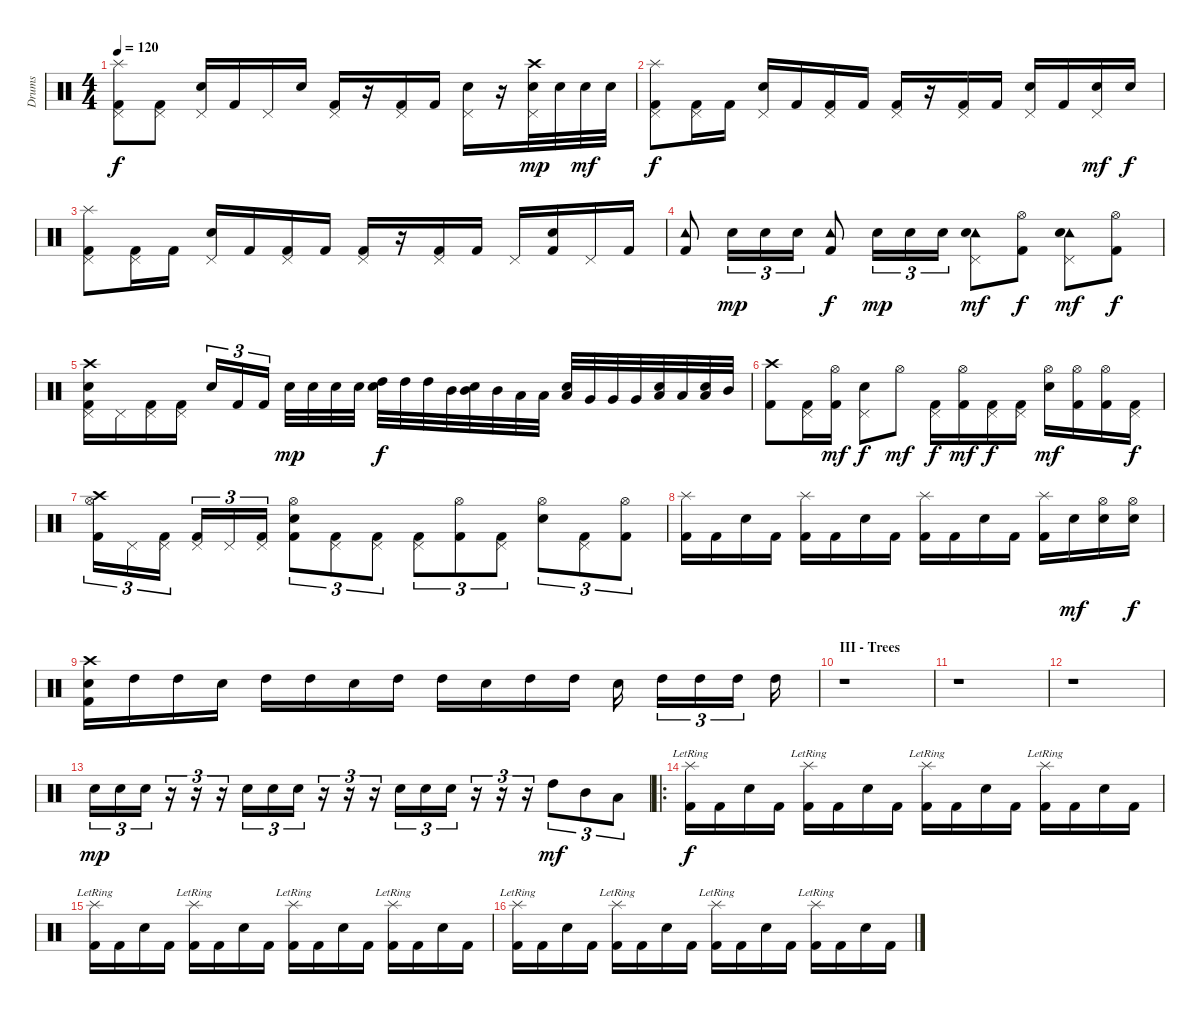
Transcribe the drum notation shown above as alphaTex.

\track ("Drums" "Drums") {instrument percussion}
\staff {score}
\articulation defaults
\ts (4 4)
\tempo 120
\clef neutral
\ks c
("Splash (hit)" "Pedal Hi-Hat (hit)" "Kick (hit) 2").8{dy f} ("Pedal Hi-Hat (hit)" "Kick (hit) 2").8 ("Pedal Hi-Hat (hit)" "Electric Snare (hit)").16 "Kick (hit) 2".16 "Pedal Hi-Hat (hit)".16 "Electric Snare (hit)".16 ("Pedal Hi-Hat (hit)" "Kick (hit) 2").16 r.16 ("Pedal Hi-Hat (hit)" "Kick (hit) 2").16 "Kick (hit) 2".16 ("Pedal Hi-Hat (hit)" "Electric Snare (hit)").16 r.16 ("Crash high (hit)" "Pedal Hi-Hat (hit)" "Electric Snare (hit)").32{dy mp} "Electric Snare (hit)".32 "Electric Snare (hit)".32{dy mf} "Electric Snare (hit)".32 |
("Splash (hit)" "Pedal Hi-Hat (hit)" "Kick (hit) 2").8{dy f} ("Pedal Hi-Hat (hit)" "Kick (hit) 2").16 "Kick (hit) 2".16 ("Pedal Hi-Hat (hit)" "Electric Snare (hit)").16 "Kick (hit) 2".16 ("Pedal Hi-Hat (hit)" "Kick (hit) 2").16 "Kick (hit) 2".16 ("Pedal Hi-Hat (hit)" "Kick (hit) 2").16 r.16 ("Pedal Hi-Hat (hit)" "Kick (hit) 2").16 "Kick (hit) 2".16 ("Pedal Hi-Hat (hit)" "Electric Snare (hit)").16 "Kick (hit) 2".16 ("Pedal Hi-Hat (hit)" "Electric Snare (hit)").16{dy mf} "Electric Snare (hit)".16{dy f} |
("Splash (hit)" "Pedal Hi-Hat (hit)" "Kick (hit) 2").8 ("Pedal Hi-Hat (hit)" "Kick (hit) 2").16 "Kick (hit) 2".16 ("Pedal Hi-Hat (hit)" "Electric Snare (hit)").16 "Kick (hit) 2".16 ("Pedal Hi-Hat (hit)" "Kick (hit) 2").16 "Kick (hit) 2".16 ("Pedal Hi-Hat (hit)" "Kick (hit) 2").16 r.16 ("Pedal Hi-Hat (hit)" "Kick (hit) 2").16 "Kick (hit) 2".16 "Pedal Hi-Hat (hit)".16 ("Electric Snare (hit)" "Kick (hit) 2").16 "Pedal Hi-Hat (hit)".16 "Kick (hit) 2".16 |
("Tambourine (hit)" "Kick (hit) 2").8 "Electric Snare (hit)".16{tu (3 2) dy mp} "Electric Snare (hit)".16{tu (3 2)} "Electric Snare (hit)".16{tu (3 2)} ("Tambourine (hit)" "Kick (hit) 2").8{dy f} "Electric Snare (hit)".16{tu (3 2) dy mp} "Electric Snare (hit)".16{tu (3 2)} "Electric Snare (hit)".16{tu (3 2)} ("Tambourine (hit)" "Pedal Hi-Hat (hit)" "Electric Snare (hit)").8{dy mf} ("Hi-Hat (open)" "Kick (hit) 2").8{dy f} ("Tambourine (hit)" "Pedal Hi-Hat (hit)" "Electric Snare (hit)").8{dy mf} ("Hi-Hat (open)" "Kick (hit) 2").8{dy f} |
("Crash high (hit)" "Pedal Hi-Hat (hit)" "Electric Snare (hit)" "Kick (hit) 2").16 "Pedal Hi-Hat (hit)".16 ("Pedal Hi-Hat (hit)" "Kick (hit) 2").16 ("Pedal Hi-Hat (hit)" "Kick (hit) 2").16 "Electric Snare (hit)".16{tu (3 2)} "Kick (hit) 2".16{tu (3 2)} "Kick (hit) 2".16{tu (3 2)} "Electric Snare (hit)".32{dy mp} "Electric Snare (hit)".32 "Electric Snare (hit)".32 "Electric Snare (hit)".32 ("Electric Snare (hit)" "High Tom (hit)").32{dy f} "High Tom (hit)".32 "High Tom (hit)".32 "Mid Tom (hit)".32 ("Electric Snare (hit)" "Mid Tom (hit)").32 "Mid Tom (hit)".32 "Low Tom (hit)".32 "Low Tom (hit)".32 ("Electric Snare (hit)" "Low Tom (hit)").32 "Very Low Tom (hit)".32 "Very Low Tom (hit)".32 "Very Low Tom (hit)".32 ("Electric Snare (hit)" "Low Tom (hit)").32 "Low Tom (hit)".32 ("Electric Snare (hit)" "Low Tom (hit)").32 "Mid Tom (hit)".32 |
("Crash high (hit)" "Kick (hit) 2").8 ("Pedal Hi-Hat (hit)" "Kick (hit) 2").16 ("Hi-Hat (open)" "Kick (hit) 2").16{dy mf} ("Pedal Hi-Hat (hit)" "Electric Snare (hit)").8{dy f} "Hi-Hat (open)".8{dy mf} ("Pedal Hi-Hat (hit)" "Kick (hit) 2").16{dy f} ("Hi-Hat (open)" "Kick (hit) 2").16{dy mf} ("Pedal Hi-Hat (hit)" "Kick (hit) 2").16{dy f} ("Pedal Hi-Hat (hit)" "Kick (hit) 2").16 ("Hi-Hat (open)" "Electric Snare (hit)").16{dy mf} ("Hi-Hat (open)" "Kick (hit) 2").16 ("Hi-Hat (open)" "Kick (hit) 2").16 ("Pedal Hi-Hat (hit)" "Kick (hit) 2").16{dy f} |
("Crash high (hit)" "Hi-Hat (open)" "Kick (hit) 2").16{tu (3 2)} "Pedal Hi-Hat (hit)".16{tu (3 2)} ("Pedal Hi-Hat (hit)" "Kick (hit) 2").16{tu (3 2)} ("Pedal Hi-Hat (hit)" "Kick (hit) 2").16{tu (3 2)} "Pedal Hi-Hat (hit)".16{tu (3 2)} ("Pedal Hi-Hat (hit)" "Kick (hit) 2").16{tu (3 2)} ("Hi-Hat (open)" "Electric Snare (hit)" "Kick (hit) 2").8{tu (3 2)} ("Pedal Hi-Hat (hit)" "Kick (hit) 2").8{tu (3 2)} ("Pedal Hi-Hat (hit)" "Kick (hit) 2").8{tu (3 2)} ("Pedal Hi-Hat (hit)" "Kick (hit) 2").8{tu (3 2)} ("Hi-Hat (open)" "Kick (hit) 2").8{tu (3 2)} ("Pedal Hi-Hat (hit)" "Kick (hit) 2").8{tu (3 2)} ("Hi-Hat (open)" "Electric Snare (hit)").8{tu (3 2)} ("Pedal Hi-Hat (hit)" "Kick (hit) 2").8{tu (3 2)} ("Hi-Hat (open)" "Kick (hit) 2").8{tu (3 2)} |
("Splash (hit)" "Kick (hit) 2").16 "Kick (hit) 2".16 "Electric Snare (hit)".16 "Kick (hit) 2".16 ("Splash (hit)" "Kick (hit) 2").16 "Kick (hit) 2".16 "Electric Snare (hit)".16 "Kick (hit) 2".16 ("Splash (hit)" "Kick (hit) 2").16 "Kick (hit) 2".16 "Electric Snare (hit)".16 "Kick (hit) 2".16 ("Splash (hit)" "Kick (hit) 2").16 "Electric Snare (hit)".16{dy mf} ("Hi-Hat (open)" "Electric Snare (hit)").16 ("Hi-Hat (open)" "Electric Snare (hit)").16{dy f} |
("Crash high (hit)" "Electric Snare (hit)" "Kick (hit) 2").16 "High Tom (hit)".16 "High Tom (hit)".16 "Electric Snare (hit)".16 "High Tom (hit)".16 "High Tom (hit)".16 "Electric Snare (hit)".16 "High Tom (hit)".16 "High Tom (hit)".16 "Electric Snare (hit)".16 "High Tom (hit)".16 "High Tom (hit)".16 "Electric Snare (hit)".16 "High Tom (hit)".16{tu (3 2)} "High Tom (hit)".16{tu (3 2)} "High Tom (hit)".16{tu (3 2)} "High Tom (hit)".16 |
\section ("" "III - Trees")
r.1 |
r.1 |
r.1 |
"Electric Snare (hit)".16{tu (3 2) dy mp} "Electric Snare (hit)".16{tu (3 2)} "Electric Snare (hit)".16{tu (3 2)} r.16{tu (3 2)} r.16{tu (3 2)} r.16{tu (3 2)} "Electric Snare (hit)".16{tu (3 2)} "Electric Snare (hit)".16{tu (3 2)} "Electric Snare (hit)".16{tu (3 2)} r.16{tu (3 2)} r.16{tu (3 2)} r.16{tu (3 2)} "Electric Snare (hit)".16{tu (3 2)} "Electric Snare (hit)".16{tu (3 2)} "Electric Snare (hit)".16{tu (3 2)} r.16{tu (3 2)} r.16{tu (3 2)} r.16{tu (3 2)} "High Tom (hit)".8{tu (3 2) dy mf} "Mid Tom (hit)".8{tu (3 2)} "Low Tom (hit)".8{tu (3 2)} |
\ro
("Splash (hit)"{lr} "Kick (hit) 2").16{dy f} "Kick (hit) 2".16 "Electric Snare (hit)".16 "Kick (hit) 2".16 ("Splash (hit)"{lr} "Kick (hit) 2").16 "Kick (hit) 2".16 "Electric Snare (hit)".16 "Kick (hit) 2".16 ("Splash (hit)"{lr} "Kick (hit) 2").16 "Kick (hit) 2".16 "Electric Snare (hit)".16 "Kick (hit) 2".16 ("Splash (hit)"{lr} "Kick (hit) 2").16 "Kick (hit) 2".16 "Electric Snare (hit)".16 "Kick (hit) 2".16 |
("Splash (hit)"{lr} "Kick (hit) 2").16 "Kick (hit) 2".16 "Electric Snare (hit)".16 "Kick (hit) 2".16 ("Splash (hit)"{lr} "Kick (hit) 2").16 "Kick (hit) 2".16 "Electric Snare (hit)".16 "Kick (hit) 2".16 ("Splash (hit)"{lr} "Kick (hit) 2").16 "Kick (hit) 2".16 "Electric Snare (hit)".16 "Kick (hit) 2".16 ("Splash (hit)"{lr} "Kick (hit) 2").16 "Kick (hit) 2".16 "Electric Snare (hit)".16 "Kick (hit) 2".16 |
("Splash (hit)"{lr} "Kick (hit) 2").16 "Kick (hit) 2".16 "Electric Snare (hit)".16 "Kick (hit) 2".16 ("Splash (hit)"{lr} "Kick (hit) 2").16 "Kick (hit) 2".16 "Electric Snare (hit)".16 "Kick (hit) 2".16 ("Splash (hit)"{lr} "Kick (hit) 2").16 "Kick (hit) 2".16 "Electric Snare (hit)".16 "Kick (hit) 2".16 ("Splash (hit)"{lr} "Kick (hit) 2").16 "Kick (hit) 2".16 "Electric Snare (hit)".16 "Kick (hit) 2".16
